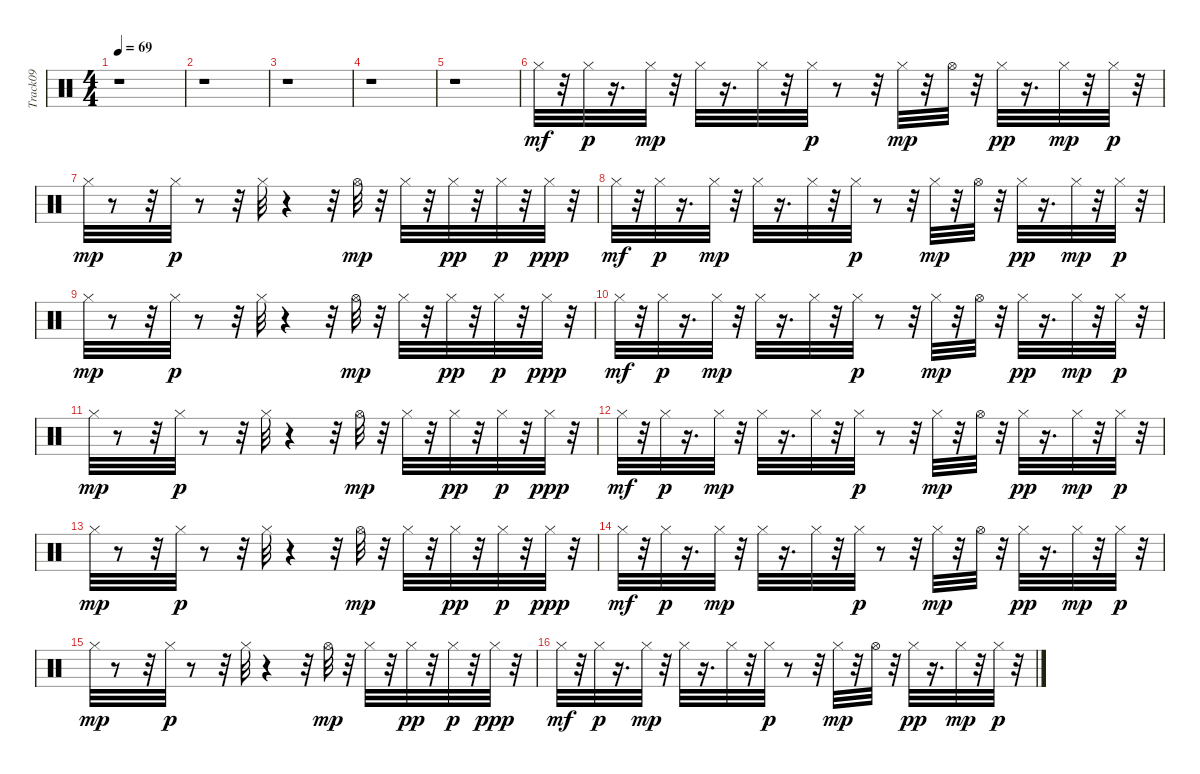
\track ("Track09" "Track09") {instrument percussion}
\staff {score}
\articulation defaults
\ts (4 4)
\tempo 69
\clef neutral
\ks c
r.1{dy mf} |
r.1 |
r.1 |
r.1 |
r.1 |
"Hi-Hat (closed)".32{volume 14 balance 8} r.32 "Hi-Hat (closed)".32{dy p} r.16{d} "Hi-Hat (closed)".32{dy mp} r.32 "Hi-Hat (closed)".32 r.16{d} "Hi-Hat (closed)".32 r.32 "Hi-Hat (closed)".32{dy p} r.8 r.32 "Hi-Hat (closed)".32{dy mp} r.32 "Hi-Hat (open)".32 r.32 "Hi-Hat (closed)".32{dy pp} r.16{d} "Hi-Hat (closed)".32{dy mp} r.32 "Hi-Hat (closed)".32{dy p} r.32 |
"Hi-Hat (closed)".32{dy mp} r.8 r.32 "Hi-Hat (closed)".32{dy p} r.8 r.32 "Hi-Hat (closed)".32 r.4 r.32 "Hi-Hat (open)".32{dy mp} r.32 "Hi-Hat (closed)".32 r.32 "Hi-Hat (closed)".32{dy pp} r.32 "Hi-Hat (closed)".32{dy p} r.32 "Hi-Hat (closed)".32{dy ppp} r.32 |
"Hi-Hat (closed)".32{dy mf} r.32 "Hi-Hat (closed)".32{dy p} r.16{d} "Hi-Hat (closed)".32{dy mp} r.32 "Hi-Hat (closed)".32 r.16{d} "Hi-Hat (closed)".32 r.32 "Hi-Hat (closed)".32{dy p} r.8 r.32 "Hi-Hat (closed)".32{dy mp} r.32 "Hi-Hat (open)".32 r.32 "Hi-Hat (closed)".32{dy pp} r.16{d} "Hi-Hat (closed)".32{dy mp} r.32 "Hi-Hat (closed)".32{dy p} r.32 |
"Hi-Hat (closed)".32{dy mp} r.8 r.32 "Hi-Hat (closed)".32{dy p} r.8 r.32 "Hi-Hat (closed)".32 r.4 r.32 "Hi-Hat (open)".32{dy mp} r.32 "Hi-Hat (closed)".32 r.32 "Hi-Hat (closed)".32{dy pp} r.32 "Hi-Hat (closed)".32{dy p} r.32 "Hi-Hat (closed)".32{dy ppp} r.32 |
"Hi-Hat (closed)".32{dy mf} r.32 "Hi-Hat (closed)".32{dy p} r.16{d} "Hi-Hat (closed)".32{dy mp} r.32 "Hi-Hat (closed)".32 r.16{d} "Hi-Hat (closed)".32 r.32 "Hi-Hat (closed)".32{dy p} r.8 r.32 "Hi-Hat (closed)".32{dy mp} r.32 "Hi-Hat (open)".32 r.32 "Hi-Hat (closed)".32{dy pp} r.16{d} "Hi-Hat (closed)".32{dy mp} r.32 "Hi-Hat (closed)".32{dy p} r.32 |
"Hi-Hat (closed)".32{dy mp} r.8 r.32 "Hi-Hat (closed)".32{dy p} r.8 r.32 "Hi-Hat (closed)".32 r.4 r.32 "Hi-Hat (open)".32{dy mp} r.32 "Hi-Hat (closed)".32 r.32 "Hi-Hat (closed)".32{dy pp} r.32 "Hi-Hat (closed)".32{dy p} r.32 "Hi-Hat (closed)".32{dy ppp} r.32 |
"Hi-Hat (closed)".32{dy mf} r.32 "Hi-Hat (closed)".32{dy p} r.16{d} "Hi-Hat (closed)".32{dy mp} r.32 "Hi-Hat (closed)".32 r.16{d} "Hi-Hat (closed)".32 r.32 "Hi-Hat (closed)".32{dy p} r.8 r.32 "Hi-Hat (closed)".32{dy mp} r.32 "Hi-Hat (open)".32 r.32 "Hi-Hat (closed)".32{dy pp} r.16{d} "Hi-Hat (closed)".32{dy mp} r.32 "Hi-Hat (closed)".32{dy p} r.32 |
"Hi-Hat (closed)".32{dy mp} r.8 r.32 "Hi-Hat (closed)".32{dy p} r.8 r.32 "Hi-Hat (closed)".32 r.4 r.32 "Hi-Hat (open)".32{dy mp} r.32 "Hi-Hat (closed)".32 r.32 "Hi-Hat (closed)".32{dy pp} r.32 "Hi-Hat (closed)".32{dy p} r.32 "Hi-Hat (closed)".32{dy ppp} r.32 |
"Hi-Hat (closed)".32{dy mf} r.32 "Hi-Hat (closed)".32{dy p} r.16{d} "Hi-Hat (closed)".32{dy mp} r.32 "Hi-Hat (closed)".32 r.16{d} "Hi-Hat (closed)".32 r.32 "Hi-Hat (closed)".32{dy p} r.8 r.32 "Hi-Hat (closed)".32{dy mp} r.32 "Hi-Hat (open)".32 r.32 "Hi-Hat (closed)".32{dy pp} r.16{d} "Hi-Hat (closed)".32{dy mp} r.32 "Hi-Hat (closed)".32{dy p} r.32 |
"Hi-Hat (closed)".32{dy mp} r.8 r.32 "Hi-Hat (closed)".32{dy p} r.8 r.32 "Hi-Hat (closed)".32 r.4 r.32 "Hi-Hat (open)".32{dy mp} r.32 "Hi-Hat (closed)".32 r.32 "Hi-Hat (closed)".32{dy pp} r.32 "Hi-Hat (closed)".32{dy p} r.32 "Hi-Hat (closed)".32{dy ppp} r.32 |
"Hi-Hat (closed)".32{dy mf} r.32 "Hi-Hat (closed)".32{dy p} r.16{d} "Hi-Hat (closed)".32{dy mp} r.32 "Hi-Hat (closed)".32 r.16{d} "Hi-Hat (closed)".32 r.32 "Hi-Hat (closed)".32{dy p} r.8 r.32 "Hi-Hat (closed)".32{dy mp} r.32 "Hi-Hat (open)".32 r.32 "Hi-Hat (closed)".32{dy pp} r.16{d} "Hi-Hat (closed)".32{dy mp} r.32 "Hi-Hat (closed)".32{dy p} r.32
